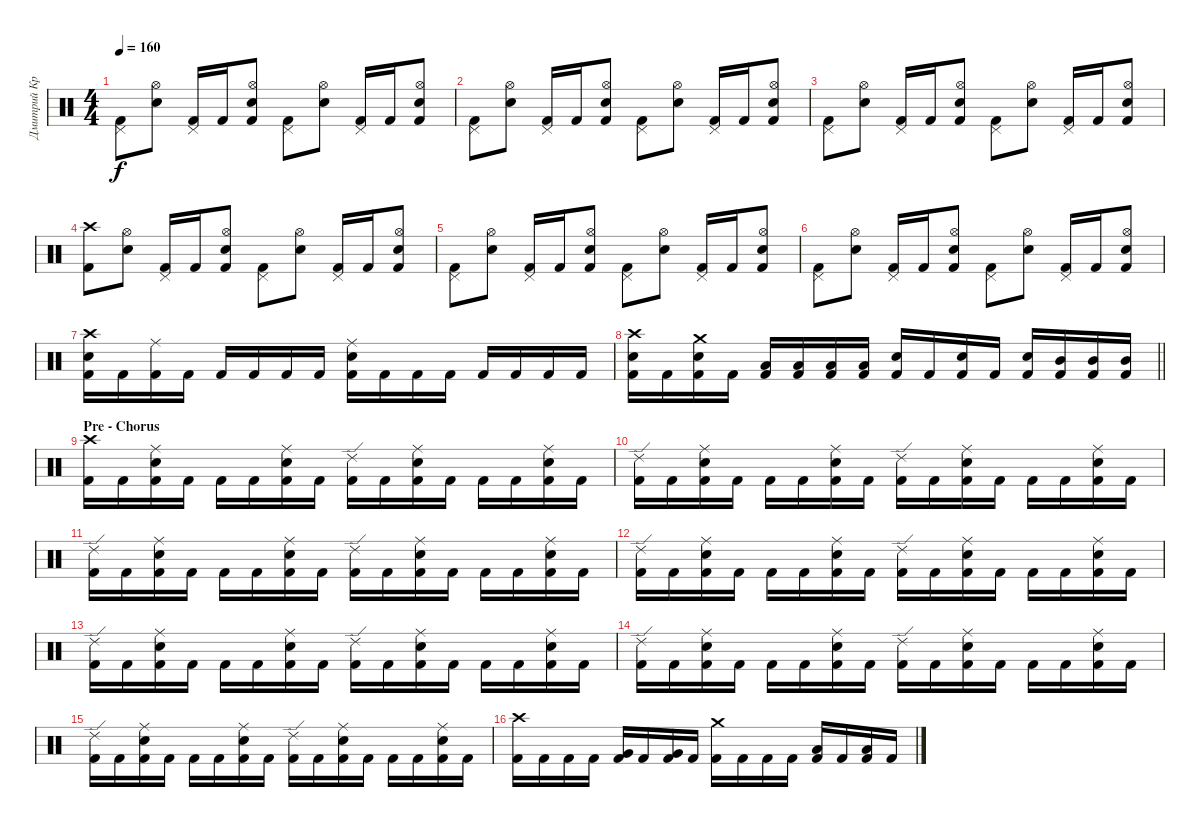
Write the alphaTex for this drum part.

\track ("Дмитрий Кривенков" "Дмитрий Кр") {instrument percussion}
\staff {score}
\articulation defaults
\ts (4 4)
\tempo 160
\clef neutral
\ks c
("Pedal Hi-Hat (hit)" "Kick (hit) 2").8{dy f} ("Hi-Hat (open)" "Electric Snare (hit)").8 ("Pedal Hi-Hat (hit)" "Kick (hit) 2").16 "Kick (hit) 2".16 ("Hi-Hat (open)" "Electric Snare (hit)" "Kick (hit) 2").8 ("Pedal Hi-Hat (hit)" "Kick (hit) 2").8 ("Hi-Hat (open)" "Electric Snare (hit)").8 ("Pedal Hi-Hat (hit)" "Kick (hit) 2").16 "Kick (hit) 2".16 ("Hi-Hat (open)" "Electric Snare (hit)" "Kick (hit) 2").8 |
("Pedal Hi-Hat (hit)" "Kick (hit) 2").8 ("Hi-Hat (open)" "Electric Snare (hit)").8 ("Pedal Hi-Hat (hit)" "Kick (hit) 2").16 "Kick (hit) 2".16 ("Hi-Hat (open)" "Electric Snare (hit)" "Kick (hit) 2").8 ("Pedal Hi-Hat (hit)" "Kick (hit) 2").8 ("Hi-Hat (open)" "Electric Snare (hit)").8 ("Pedal Hi-Hat (hit)" "Kick (hit) 2").16 "Kick (hit) 2".16 ("Hi-Hat (open)" "Electric Snare (hit)" "Kick (hit) 2").8 |
("Pedal Hi-Hat (hit)" "Kick (hit) 2").8 ("Hi-Hat (open)" "Electric Snare (hit)").8 ("Pedal Hi-Hat (hit)" "Kick (hit) 2").16 "Kick (hit) 2".16 ("Hi-Hat (open)" "Electric Snare (hit)" "Kick (hit) 2").8 ("Pedal Hi-Hat (hit)" "Kick (hit) 2").8 ("Hi-Hat (open)" "Electric Snare (hit)").8 ("Pedal Hi-Hat (hit)" "Kick (hit) 2").16 "Kick (hit) 2".16 ("Hi-Hat (open)" "Electric Snare (hit)" "Kick (hit) 2").8 |
("Crash high (hit)" "Kick (hit) 2").8 ("Hi-Hat (open)" "Electric Snare (hit)").8 ("Pedal Hi-Hat (hit)" "Kick (hit) 2").16 "Kick (hit) 2".16 ("Hi-Hat (open)" "Electric Snare (hit)" "Kick (hit) 2").8 ("Pedal Hi-Hat (hit)" "Kick (hit) 2").8 ("Hi-Hat (open)" "Electric Snare (hit)").8 ("Pedal Hi-Hat (hit)" "Kick (hit) 2").16 "Kick (hit) 2".16 ("Hi-Hat (open)" "Electric Snare (hit)" "Kick (hit) 2").8 |
("Pedal Hi-Hat (hit)" "Kick (hit) 2").8 ("Hi-Hat (open)" "Electric Snare (hit)").8 ("Pedal Hi-Hat (hit)" "Kick (hit) 2").16 "Kick (hit) 2".16 ("Hi-Hat (open)" "Electric Snare (hit)" "Kick (hit) 2").8 ("Pedal Hi-Hat (hit)" "Kick (hit) 2").8 ("Hi-Hat (open)" "Electric Snare (hit)").8 ("Pedal Hi-Hat (hit)" "Kick (hit) 2").16 "Kick (hit) 2".16 ("Hi-Hat (open)" "Electric Snare (hit)" "Kick (hit) 2").8 |
("Pedal Hi-Hat (hit)" "Kick (hit) 2").8 ("Hi-Hat (open)" "Electric Snare (hit)").8 ("Pedal Hi-Hat (hit)" "Kick (hit) 2").16 "Kick (hit) 2".16 ("Hi-Hat (open)" "Electric Snare (hit)" "Kick (hit) 2").8 ("Pedal Hi-Hat (hit)" "Kick (hit) 2").8 ("Hi-Hat (open)" "Electric Snare (hit)").8 ("Pedal Hi-Hat (hit)" "Kick (hit) 2").16 "Kick (hit) 2".16 ("Hi-Hat (open)" "Electric Snare (hit)" "Kick (hit) 2").8 |
("Crash high (hit)" "Electric Snare (hit)" "Kick (hit) 2").16 "Kick (hit) 2".16 ("Ride (middle)" "Kick (hit) 2").16 "Kick (hit) 2".16 "Kick (hit) 2".16 "Kick (hit) 2".16 "Kick (hit) 2".16 "Kick (hit) 2".16 ("Ride (middle)" "Electric Snare (hit)" "Kick (hit) 2").16 "Kick (hit) 2".16 "Kick (hit) 2".16 "Kick (hit) 2".16 "Kick (hit) 2".16 "Kick (hit) 2".16 "Kick (hit) 2".16 "Kick (hit) 2".16 |
\barLineRight lightlight
("Crash high (hit)" "Electric Snare (hit)" "Kick (hit) 2").16 "Kick (hit) 2".16 ("Crash medium (hit)" "Electric Snare (hit)" "Kick (hit) 2").16 "Kick (hit) 2".16 ("Low Tom (hit)" "Kick (hit) 2").16 ("Low Tom (hit)" "Kick (hit) 2").16 ("Low Tom (hit)" "Kick (hit) 2").16 ("Low Tom (hit)" "Kick (hit) 2").16 ("Electric Snare (hit)" "Kick (hit) 2").16 "Kick (hit) 2".16 ("Electric Snare (hit)" "Kick (hit) 2").16 "Kick (hit) 2".16 ("Electric Snare (hit)" "Kick (hit) 2").16 ("Mid Tom (hit)" "Kick (hit) 2").16 ("Mid Tom (hit)" "Kick (hit) 2").16 ("Mid Tom (hit)" "Kick (hit) 2").16 |
\section ("" "Pre - Chorus")
("Crash high (hit)" "Kick (hit) 2").16 "Kick (hit) 2".16 ("Ride (middle)" "Electric Snare (hit)" "Kick (hit) 2").16 "Kick (hit) 2".16 "Kick (hit) 2".16 "Kick (hit) 2".16 ("Ride (middle)" "Electric Snare (hit)" "Kick (hit) 2").16 "Kick (hit) 2".16 ("Ride (edge) 2" "Kick (hit) 2").16 "Kick (hit) 2".16 ("Ride (middle)" "Electric Snare (hit)" "Kick (hit) 2").16 "Kick (hit) 2".16 "Kick (hit) 2".16 "Kick (hit) 2".16 ("Ride (middle)" "Electric Snare (hit)" "Kick (hit) 2").16 "Kick (hit) 2".16 |
("Ride (edge) 2" "Kick (hit) 2").16 "Kick (hit) 2".16 ("Ride (middle)" "Electric Snare (hit)" "Kick (hit) 2").16 "Kick (hit) 2".16 "Kick (hit) 2".16 "Kick (hit) 2".16 ("Ride (middle)" "Electric Snare (hit)" "Kick (hit) 2").16 "Kick (hit) 2".16 ("Ride (edge) 2" "Kick (hit) 2").16 "Kick (hit) 2".16 ("Ride (middle)" "Electric Snare (hit)" "Kick (hit) 2").16 "Kick (hit) 2".16 "Kick (hit) 2".16 "Kick (hit) 2".16 ("Ride (middle)" "Electric Snare (hit)" "Kick (hit) 2").16 "Kick (hit) 2".16 |
("Ride (edge) 2" "Kick (hit) 2").16 "Kick (hit) 2".16 ("Ride (middle)" "Electric Snare (hit)" "Kick (hit) 2").16 "Kick (hit) 2".16 "Kick (hit) 2".16 "Kick (hit) 2".16 ("Ride (middle)" "Electric Snare (hit)" "Kick (hit) 2").16 "Kick (hit) 2".16 ("Ride (edge) 2" "Kick (hit) 2").16 "Kick (hit) 2".16 ("Ride (middle)" "Electric Snare (hit)" "Kick (hit) 2").16 "Kick (hit) 2".16 "Kick (hit) 2".16 "Kick (hit) 2".16 ("Ride (middle)" "Electric Snare (hit)" "Kick (hit) 2").16 "Kick (hit) 2".16 |
("Ride (edge) 2" "Kick (hit) 2").16 "Kick (hit) 2".16 ("Ride (middle)" "Electric Snare (hit)" "Kick (hit) 2").16 "Kick (hit) 2".16 "Kick (hit) 2".16 "Kick (hit) 2".16 ("Ride (middle)" "Electric Snare (hit)" "Kick (hit) 2").16 "Kick (hit) 2".16 ("Ride (edge) 2" "Kick (hit) 2").16 "Kick (hit) 2".16 ("Ride (middle)" "Electric Snare (hit)" "Kick (hit) 2").16 "Kick (hit) 2".16 "Kick (hit) 2".16 "Kick (hit) 2".16 ("Ride (middle)" "Electric Snare (hit)" "Kick (hit) 2").16 "Kick (hit) 2".16 |
("Ride (edge) 2" "Kick (hit) 2").16 "Kick (hit) 2".16 ("Ride (middle)" "Electric Snare (hit)" "Kick (hit) 2").16 "Kick (hit) 2".16 "Kick (hit) 2".16 "Kick (hit) 2".16 ("Ride (middle)" "Electric Snare (hit)" "Kick (hit) 2").16 "Kick (hit) 2".16 ("Ride (edge) 2" "Kick (hit) 2").16 "Kick (hit) 2".16 ("Ride (middle)" "Electric Snare (hit)" "Kick (hit) 2").16 "Kick (hit) 2".16 "Kick (hit) 2".16 "Kick (hit) 2".16 ("Ride (middle)" "Electric Snare (hit)" "Kick (hit) 2").16 "Kick (hit) 2".16 |
("Ride (edge) 2" "Kick (hit) 2").16 "Kick (hit) 2".16 ("Ride (middle)" "Electric Snare (hit)" "Kick (hit) 2").16 "Kick (hit) 2".16 "Kick (hit) 2".16 "Kick (hit) 2".16 ("Ride (middle)" "Electric Snare (hit)" "Kick (hit) 2").16 "Kick (hit) 2".16 ("Ride (edge) 2" "Kick (hit) 2").16 "Kick (hit) 2".16 ("Ride (middle)" "Electric Snare (hit)" "Kick (hit) 2").16 "Kick (hit) 2".16 "Kick (hit) 2".16 "Kick (hit) 2".16 ("Ride (middle)" "Electric Snare (hit)" "Kick (hit) 2").16 "Kick (hit) 2".16 |
("Ride (edge) 2" "Kick (hit) 2").16 "Kick (hit) 2".16 ("Ride (middle)" "Electric Snare (hit)" "Kick (hit) 2").16 "Kick (hit) 2".16 "Kick (hit) 2".16 "Kick (hit) 2".16 ("Ride (middle)" "Electric Snare (hit)" "Kick (hit) 2").16 "Kick (hit) 2".16 ("Ride (edge) 2" "Kick (hit) 2").16 "Kick (hit) 2".16 ("Ride (middle)" "Electric Snare (hit)" "Kick (hit) 2").16 "Kick (hit) 2".16 "Kick (hit) 2".16 "Kick (hit) 2".16 ("Ride (middle)" "Electric Snare (hit)" "Kick (hit) 2").16 "Kick (hit) 2".16 |
("Crash high (hit)" "Kick (hit) 2").16 "Kick (hit) 2".16 "Kick (hit) 2".16 "Kick (hit) 2".16 ("Very Low Tom (hit)" "Kick (hit) 2").16 "Kick (hit) 2".16 ("Very Low Tom (hit)" "Kick (hit) 2").16 "Kick (hit) 2".16 ("Crash medium (hit)" "Kick (hit) 2").16 "Kick (hit) 2".16 "Kick (hit) 2".16 "Kick (hit) 2".16 ("Low Tom (hit)" "Kick (hit) 2").16 "Kick (hit) 2".16 ("Low Tom (hit)" "Kick (hit) 2").16 "Kick (hit) 2".16
